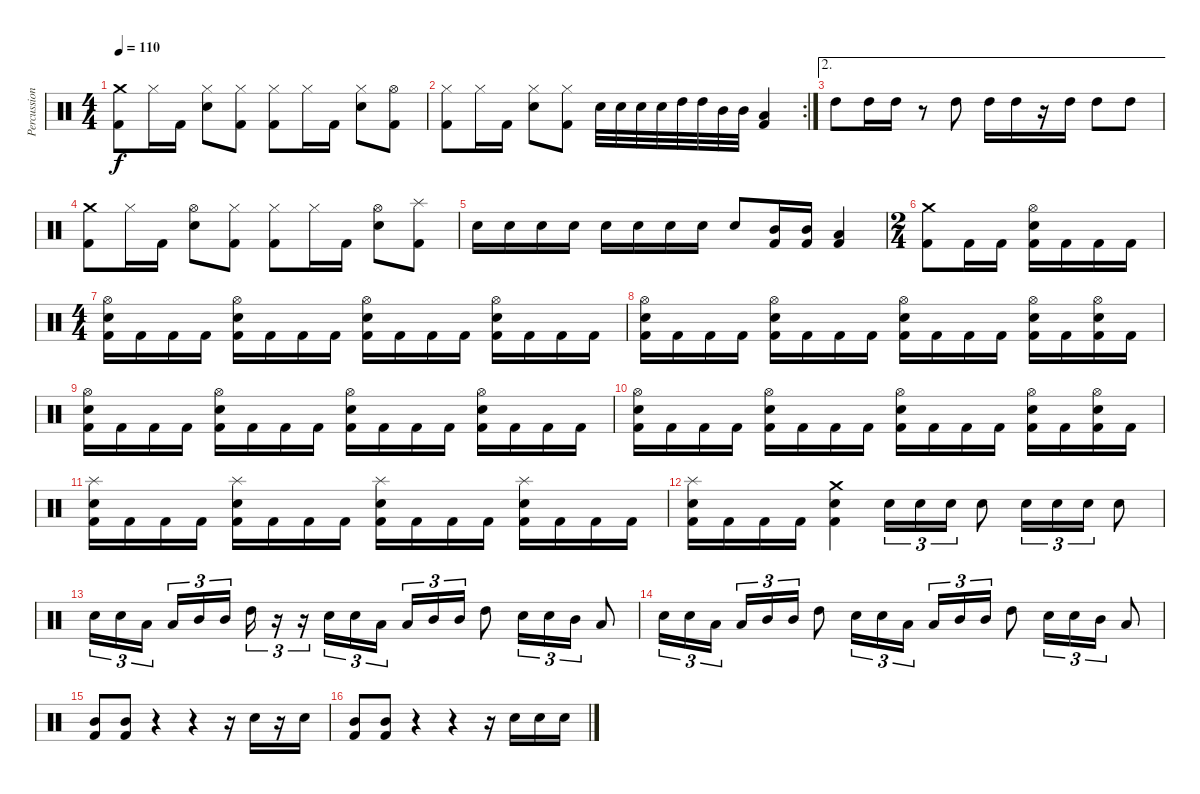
\track ("Percussions" "Percussion") {instrument percussion}
\staff {score}
\articulation defaults
\ts (4 4)
\tempo 110
\clef neutral
\ks c
("Crash medium (hit)" "Kick (hit) 2").8{dy f} "Hi-Hat (closed)".16 "Kick (hit) 2".16 ("Hi-Hat (closed)" "Electric Snare (hit)").8 ("Hi-Hat (closed)" "Kick (hit) 2").8 ("Hi-Hat (closed)" "Kick (hit) 2").8 "Hi-Hat (closed)".16 "Kick (hit) 2".16 ("Hi-Hat (closed)" "Electric Snare (hit)").8 ("Hi-Hat (open)" "Kick (hit) 2").8 |
\rc 2
("Hi-Hat (closed)" "Kick (hit) 2").8 "Hi-Hat (closed)".16 "Kick (hit) 2".16 ("Hi-Hat (closed)" "Electric Snare (hit)").8 ("Hi-Hat (closed)" "Kick (hit) 2").8 "Electric Snare (hit)".32 "Electric Snare (hit)".32 "Electric Snare (hit)".32 "Electric Snare (hit)".32 "High Tom (hit)".32 "High Tom (hit)".32 "Mid Tom (hit)".32 "Mid Tom (hit)".32 ("Low Tom (hit)" "Kick (hit) 2").4 |
\ae 2 "High Tom (hit)".8 "High Tom (hit)".16 "High Tom (hit)".16
r.8 "High Tom (hit)".8 "High Tom (hit)".16 "High Tom (hit)".16 r.16 "High Tom (hit)".16 "High Tom (hit)".8 "High Tom (hit)".8 |
("Crash medium (hit)" "Kick (hit) 2").8 "Hi-Hat (closed)".16 "Kick (hit) 2".16 ("Hi-Hat (open)" "Electric Snare (hit)").8 ("Hi-Hat (closed)" "Kick (hit) 2").8 ("Hi-Hat (closed)" "Kick (hit) 2").8 "Hi-Hat (closed)".16 "Kick (hit) 2".16 ("Hi-Hat (open)" "Electric Snare (hit)").8 ("Splash (hit)" "Kick (hit) 2").8 |
"Electric Snare (hit)".16 "Electric Snare (hit)".16 "Electric Snare (hit)".16 "Electric Snare (hit)".16 "Electric Snare (hit)".16 "Electric Snare (hit)".16 "Electric Snare (hit)".16 "Electric Snare (hit)".16 "Electric Snare (hit)".8 ("Mid Tom (hit)" "Kick (hit) 2").16 ("Mid Tom (hit)" "Kick (hit) 2").16 ("Low Tom (hit)" "Kick (hit) 2").4 |
\ts (2 4)
("Crash medium (hit)" "Kick (hit) 2").8 "Kick (hit) 2".16 "Kick (hit) 2".16 ("Hi-Hat (open)" "Electric Snare (hit)" "Kick (hit) 2").16 "Kick (hit) 2".16 "Kick (hit) 2".16 "Kick (hit) 2".16 |
\ts (4 4)
("Hi-Hat (open)" "Electric Snare (hit)" "Kick (hit) 2").16 "Kick (hit) 2".16 "Kick (hit) 2".16 "Kick (hit) 2".16 ("Hi-Hat (open)" "Electric Snare (hit)" "Kick (hit) 2").16 "Kick (hit) 2".16 "Kick (hit) 2".16 "Kick (hit) 2".16 ("Hi-Hat (open)" "Electric Snare (hit)" "Kick (hit) 2").16 "Kick (hit) 2".16 "Kick (hit) 2".16 "Kick (hit) 2".16 ("Hi-Hat (open)" "Electric Snare (hit)" "Kick (hit) 2").16 "Kick (hit) 2".16 "Kick (hit) 2".16 "Kick (hit) 2".16 |
("Hi-Hat (open)" "Electric Snare (hit)" "Kick (hit) 2").16 "Kick (hit) 2".16 "Kick (hit) 2".16 "Kick (hit) 2".16 ("Hi-Hat (open)" "Electric Snare (hit)" "Kick (hit) 2").16 "Kick (hit) 2".16 "Kick (hit) 2".16 "Kick (hit) 2".16 ("Hi-Hat (open)" "Electric Snare (hit)" "Kick (hit) 2").16 "Kick (hit) 2".16 "Kick (hit) 2".16 "Kick (hit) 2".16 ("Hi-Hat (open)" "Electric Snare (hit)" "Kick (hit) 2").16 "Kick (hit) 2".16 ("Hi-Hat (open)" "Electric Snare (hit)" "Kick (hit) 2").16 "Kick (hit) 2".16 |
("Hi-Hat (open)" "Electric Snare (hit)" "Kick (hit) 2").16 "Kick (hit) 2".16 "Kick (hit) 2".16 "Kick (hit) 2".16 ("Hi-Hat (open)" "Electric Snare (hit)" "Kick (hit) 2").16 "Kick (hit) 2".16 "Kick (hit) 2".16 "Kick (hit) 2".16 ("Hi-Hat (open)" "Electric Snare (hit)" "Kick (hit) 2").16 "Kick (hit) 2".16 "Kick (hit) 2".16 "Kick (hit) 2".16 ("Hi-Hat (open)" "Electric Snare (hit)" "Kick (hit) 2").16 "Kick (hit) 2".16 "Kick (hit) 2".16 "Kick (hit) 2".16 |
("Hi-Hat (open)" "Electric Snare (hit)" "Kick (hit) 2").16 "Kick (hit) 2".16 "Kick (hit) 2".16 "Kick (hit) 2".16 ("Hi-Hat (open)" "Electric Snare (hit)" "Kick (hit) 2").16 "Kick (hit) 2".16 "Kick (hit) 2".16 "Kick (hit) 2".16 ("Hi-Hat (open)" "Electric Snare (hit)" "Kick (hit) 2").16 "Kick (hit) 2".16 "Kick (hit) 2".16 "Kick (hit) 2".16 ("Hi-Hat (open)" "Electric Snare (hit)" "Kick (hit) 2").16 "Kick (hit) 2".16 ("Hi-Hat (open)" "Electric Snare (hit)" "Kick (hit) 2").16 "Kick (hit) 2".16 |
("Splash (hit)" "Electric Snare (hit)" "Kick (hit) 2").16 "Kick (hit) 2".16 "Kick (hit) 2".16 "Kick (hit) 2".16 ("Splash (hit)" "Electric Snare (hit)" "Kick (hit) 2").16 "Kick (hit) 2".16 "Kick (hit) 2".16 "Kick (hit) 2".16 ("Splash (hit)" "Electric Snare (hit)" "Kick (hit) 2").16 "Kick (hit) 2".16 "Kick (hit) 2".16 "Kick (hit) 2".16 ("Splash (hit)" "Electric Snare (hit)" "Kick (hit) 2").16 "Kick (hit) 2".16 "Kick (hit) 2".16 "Kick (hit) 2".16 |
("Splash (hit)" "Electric Snare (hit)" "Kick (hit) 2").16 "Kick (hit) 2".16 "Kick (hit) 2".16 "Kick (hit) 2".16 ("Crash medium (hit)" "Electric Snare (hit)" "Kick (hit) 2").4 "Electric Snare (hit)".16{tu (3 2)} "Electric Snare (hit)".16{tu (3 2)} "Electric Snare (hit)".16{tu (3 2)} "Electric Snare (hit)".8 "Electric Snare (hit)".16{tu (3 2)} "Electric Snare (hit)".16{tu (3 2)} "Electric Snare (hit)".16{tu (3 2)} "Electric Snare (hit)".8 |
"Electric Snare (hit)".16{tu (3 2)} "Electric Snare (hit)".16{tu (3 2)} "Low Tom (hit)".16{tu (3 2) beam splitsecondary} "Low Tom (hit)".16{tu (3 2)} "Mid Tom (hit)".16{tu (3 2)} "Mid Tom (hit)".16{tu (3 2)} "High Tom (hit)".16{tu (3 2)} r.16{tu (3 2)} r.16{tu (3 2)} "Electric Snare (hit)".16{tu (3 2)} "Electric Snare (hit)".16{tu (3 2)} "Low Tom (hit)".16{tu (3 2)} "Low Tom (hit)".16{tu (3 2)} "Mid Tom (hit)".16{tu (3 2)} "Mid Tom (hit)".16{tu (3 2)} "High Tom (hit)".8 "Electric Snare (hit)".16{tu (3 2)} "Electric Snare (hit)".16{tu (3 2)} "Mid Tom (hit)".16{tu (3 2)} "Low Tom (hit)".8 |
"Electric Snare (hit)".16{tu (3 2)} "Electric Snare (hit)".16{tu (3 2)} "Low Tom (hit)".16{tu (3 2) beam splitsecondary} "Low Tom (hit)".16{tu (3 2)} "Mid Tom (hit)".16{tu (3 2)} "Mid Tom (hit)".16{tu (3 2)} "High Tom (hit)".8 "Electric Snare (hit)".16{tu (3 2)} "Electric Snare (hit)".16{tu (3 2)} "Low Tom (hit)".16{tu (3 2)} "Low Tom (hit)".16{tu (3 2)} "Mid Tom (hit)".16{tu (3 2)} "Mid Tom (hit)".16{tu (3 2)} "High Tom (hit)".8 "Electric Snare (hit)".16{tu (3 2)} "Electric Snare (hit)".16{tu (3 2)} "Mid Tom (hit)".16{tu (3 2)} "Low Tom (hit)".8 |
("Mid Tom (hit)" "Kick (hit) 2").8 ("Mid Tom (hit)" "Kick (hit) 2").8 r.4 r.4 r.16 "Electric Snare (hit)".16 r.16 "Electric Snare (hit)".16 |
("Mid Tom (hit)" "Kick (hit) 2").8 ("Mid Tom (hit)" "Kick (hit) 2").8 r.4 r.4 r.16 "Electric Snare (hit)".16 "Electric Snare (hit)".16 "Electric Snare (hit)".16
